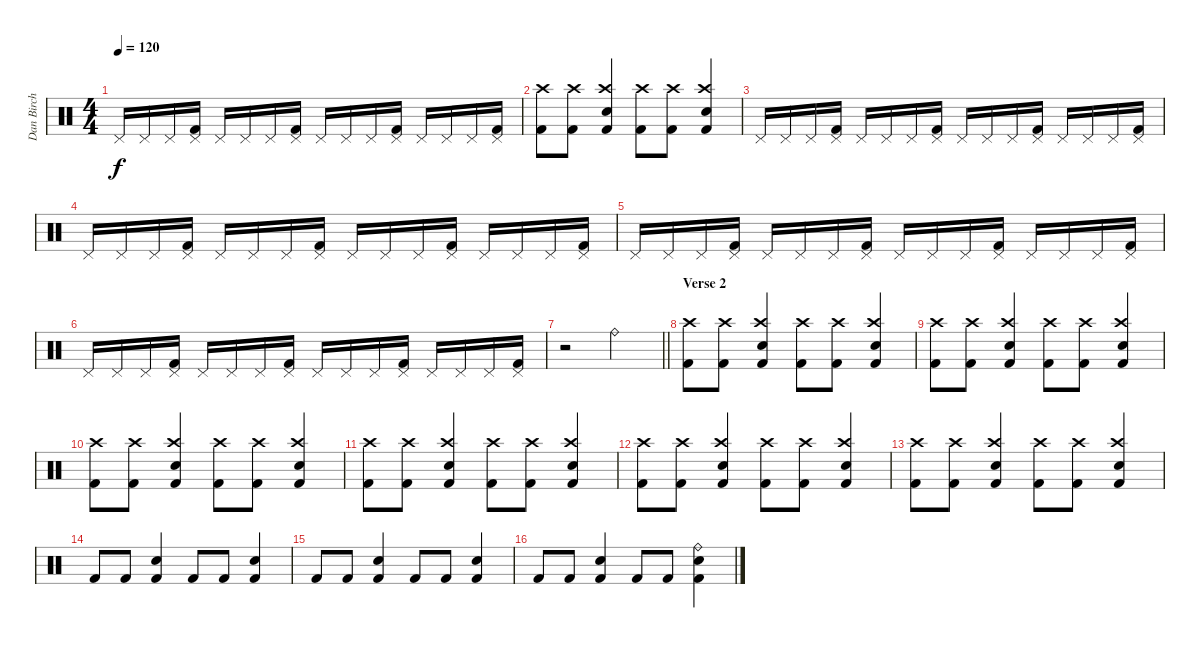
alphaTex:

\track ("Dan Birch" "Dan Birch") {instrument percussion}
\staff {score}
\articulation defaults
\ts (4 4)
\tempo 120
\clef neutral
\ks c "Pedal Hi-Hat (hit)".16{dy f} "Pedal Hi-Hat (hit)".16 "Pedal Hi-Hat (hit)".16
("Pedal Hi-Hat (hit)" "Kick (hit) 2").16 "Pedal Hi-Hat (hit)".16 "Pedal Hi-Hat (hit)".16 "Pedal Hi-Hat (hit)".16 ("Pedal Hi-Hat (hit)" "Kick (hit) 2").16 "Pedal Hi-Hat (hit)".16 "Pedal Hi-Hat (hit)".16 "Pedal Hi-Hat (hit)".16 ("Pedal Hi-Hat (hit)" "Kick (hit) 2").16 "Pedal Hi-Hat (hit)".16 "Pedal Hi-Hat (hit)".16 "Pedal Hi-Hat (hit)".16 ("Pedal Hi-Hat (hit)" "Kick (hit) 2").16 |
("Crash high (hit)" "Kick (hit) 2").8 ("Crash high (hit)" "Kick (hit) 2").8 ("Crash high (hit)" "Snare (hit) 2" "Kick (hit) 2").4 ("Crash high (hit)" "Kick (hit) 2").8 ("Crash high (hit)" "Kick (hit) 2").8 ("Crash high (hit)" "Snare (hit) 2" "Kick (hit) 2").4 |
"Pedal Hi-Hat (hit)".16 "Pedal Hi-Hat (hit)".16 "Pedal Hi-Hat (hit)".16 ("Pedal Hi-Hat (hit)" "Kick (hit) 2").16 "Pedal Hi-Hat (hit)".16 "Pedal Hi-Hat (hit)".16 "Pedal Hi-Hat (hit)".16 ("Pedal Hi-Hat (hit)" "Kick (hit) 2").16 "Pedal Hi-Hat (hit)".16 "Pedal Hi-Hat (hit)".16 "Pedal Hi-Hat (hit)".16 ("Pedal Hi-Hat (hit)" "Kick (hit) 2").16 "Pedal Hi-Hat (hit)".16 "Pedal Hi-Hat (hit)".16 "Pedal Hi-Hat (hit)".16 ("Pedal Hi-Hat (hit)" "Kick (hit) 2").16 |
"Pedal Hi-Hat (hit)".16 "Pedal Hi-Hat (hit)".16 "Pedal Hi-Hat (hit)".16 ("Pedal Hi-Hat (hit)" "Kick (hit) 2").16 "Pedal Hi-Hat (hit)".16 "Pedal Hi-Hat (hit)".16 "Pedal Hi-Hat (hit)".16 ("Pedal Hi-Hat (hit)" "Kick (hit) 2").16 "Pedal Hi-Hat (hit)".16 "Pedal Hi-Hat (hit)".16 "Pedal Hi-Hat (hit)".16 ("Pedal Hi-Hat (hit)" "Kick (hit) 2").16 "Pedal Hi-Hat (hit)".16 "Pedal Hi-Hat (hit)".16 "Pedal Hi-Hat (hit)".16 ("Pedal Hi-Hat (hit)" "Kick (hit) 2").16 |
"Pedal Hi-Hat (hit)".16 "Pedal Hi-Hat (hit)".16 "Pedal Hi-Hat (hit)".16 ("Pedal Hi-Hat (hit)" "Kick (hit) 2").16 "Pedal Hi-Hat (hit)".16 "Pedal Hi-Hat (hit)".16 "Pedal Hi-Hat (hit)".16 ("Pedal Hi-Hat (hit)" "Kick (hit) 2").16 "Pedal Hi-Hat (hit)".16 "Pedal Hi-Hat (hit)".16 "Pedal Hi-Hat (hit)".16 ("Pedal Hi-Hat (hit)" "Kick (hit) 2").16 "Pedal Hi-Hat (hit)".16 "Pedal Hi-Hat (hit)".16 "Pedal Hi-Hat (hit)".16 ("Pedal Hi-Hat (hit)" "Kick (hit) 2").16 |
"Pedal Hi-Hat (hit)".16 "Pedal Hi-Hat (hit)".16 "Pedal Hi-Hat (hit)".16 ("Pedal Hi-Hat (hit)" "Kick (hit) 2").16 "Pedal Hi-Hat (hit)".16 "Pedal Hi-Hat (hit)".16 "Pedal Hi-Hat (hit)".16 ("Pedal Hi-Hat (hit)" "Kick (hit) 2").16 "Pedal Hi-Hat (hit)".16 "Pedal Hi-Hat (hit)".16 "Pedal Hi-Hat (hit)".16 ("Pedal Hi-Hat (hit)" "Kick (hit) 2").16 "Pedal Hi-Hat (hit)".16 "Pedal Hi-Hat (hit)".16 "Pedal Hi-Hat (hit)".16 ("Pedal Hi-Hat (hit)" "Kick (hit) 2").16 |
\barLineRight lightlight
r.2 "Ride (bell)".2 |
\section ("" "Verse 2")
("Crash high (hit)" "Kick (hit) 2").8 ("Crash high (hit)" "Kick (hit) 2").8 ("Crash high (hit)" "Snare (hit) 2" "Kick (hit) 2").4 ("Crash high (hit)" "Kick (hit) 2").8 ("Crash high (hit)" "Kick (hit) 2").8 ("Crash high (hit)" "Snare (hit) 2" "Kick (hit) 2").4 |
("Crash high (hit)" "Kick (hit) 2").8 ("Crash high (hit)" "Kick (hit) 2").8 ("Crash high (hit)" "Snare (hit) 2" "Kick (hit) 2").4 ("Crash high (hit)" "Kick (hit) 2").8 ("Crash high (hit)" "Kick (hit) 2").8 ("Crash high (hit)" "Snare (hit) 2" "Kick (hit) 2").4 |
("Crash high (hit)" "Kick (hit) 2").8 ("Crash high (hit)" "Kick (hit) 2").8 ("Crash high (hit)" "Snare (hit) 2" "Kick (hit) 2").4 ("Crash high (hit)" "Kick (hit) 2").8 ("Crash high (hit)" "Kick (hit) 2").8 ("Crash high (hit)" "Snare (hit) 2" "Kick (hit) 2").4 |
("Crash high (hit)" "Kick (hit) 2").8 ("Crash high (hit)" "Kick (hit) 2").8 ("Crash high (hit)" "Snare (hit) 2" "Kick (hit) 2").4 ("Crash high (hit)" "Kick (hit) 2").8 ("Crash high (hit)" "Kick (hit) 2").8 ("Crash high (hit)" "Snare (hit) 2" "Kick (hit) 2").4 |
("Crash high (hit)" "Kick (hit) 2").8 ("Crash high (hit)" "Kick (hit) 2").8 ("Crash high (hit)" "Snare (hit) 2" "Kick (hit) 2").4 ("Crash high (hit)" "Kick (hit) 2").8 ("Crash high (hit)" "Kick (hit) 2").8 ("Crash high (hit)" "Snare (hit) 2" "Kick (hit) 2").4 |
("Crash high (hit)" "Kick (hit) 2").8 ("Crash high (hit)" "Kick (hit) 2").8 ("Crash high (hit)" "Snare (hit) 2" "Kick (hit) 2").4 ("Crash high (hit)" "Kick (hit) 2").8 ("Crash high (hit)" "Kick (hit) 2").8 ("Crash high (hit)" "Snare (hit) 2" "Kick (hit) 2").4 |
"Kick (hit) 2".8 "Kick (hit) 2".8 ("Snare (hit) 2" "Kick (hit) 2").4 "Kick (hit) 2".8 "Kick (hit) 2".8 ("Snare (hit) 2" "Kick (hit) 2").4 |
"Kick (hit) 2".8 "Kick (hit) 2".8 ("Snare (hit) 2" "Kick (hit) 2").4 "Kick (hit) 2".8 "Kick (hit) 2".8 ("Snare (hit) 2" "Kick (hit) 2").4 |
"Kick (hit) 2".8 "Kick (hit) 2".8 ("Snare (hit) 2" "Kick (hit) 2").4 "Kick (hit) 2".8 "Kick (hit) 2".8 ("Ride (bell)" "Snare (hit) 2" "Kick (hit) 2").4
